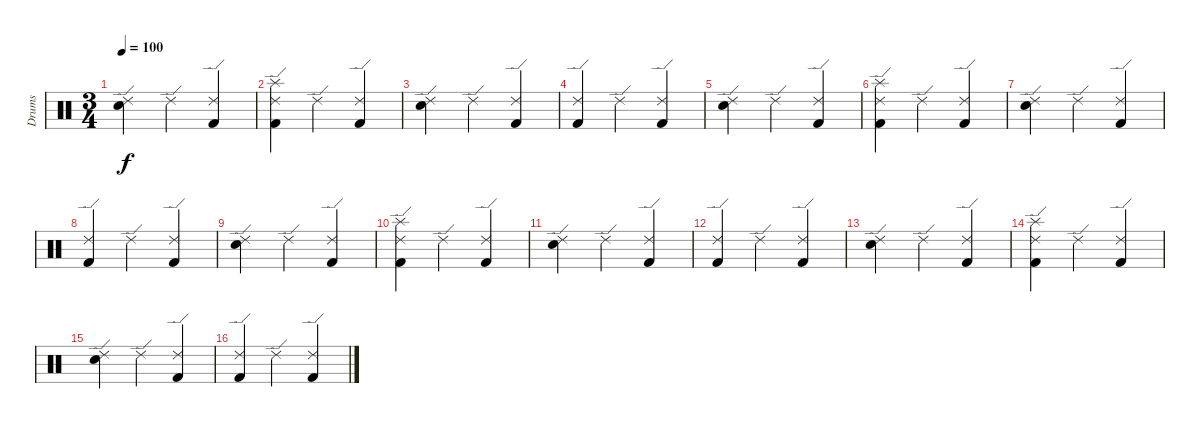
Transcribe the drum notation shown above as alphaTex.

\track ("Drums" "Drums") {instrument percussion}
\staff {score}
\articulation defaults
\ts (3 4)
\tempo 100
\clef neutral
\ks c
("Ride (edge) 2" "Electric Snare (hit)").4{dy f} "Ride (edge) 2".4 ("Ride (edge) 2" "Kick (hit) 2").4 |
("Ride (edge) 2" "Splash (hit)" "Kick (hit) 2").4 "Ride (edge) 2".4 ("Ride (edge) 2" "Kick (hit) 2").4 |
("Ride (edge) 2" "Electric Snare (hit)").4 "Ride (edge) 2".4 ("Ride (edge) 2" "Kick (hit) 2").4 |
("Ride (edge) 2" "Kick (hit) 2").4 "Ride (edge) 2".4 ("Ride (edge) 2" "Kick (hit) 2").4 |
("Ride (edge) 2" "Electric Snare (hit)").4 "Ride (edge) 2".4 ("Ride (edge) 2" "Kick (hit) 2").4 |
("Ride (edge) 2" "Splash (hit)" "Kick (hit) 2").4 "Ride (edge) 2".4 ("Ride (edge) 2" "Kick (hit) 2").4 |
("Ride (edge) 2" "Electric Snare (hit)").4 "Ride (edge) 2".4 ("Ride (edge) 2" "Kick (hit) 2").4 |
("Ride (edge) 2" "Kick (hit) 2").4 "Ride (edge) 2".4 ("Ride (edge) 2" "Kick (hit) 2").4 |
("Ride (edge) 2" "Electric Snare (hit)").4 "Ride (edge) 2".4 ("Ride (edge) 2" "Kick (hit) 2").4 |
("Ride (edge) 2" "Splash (hit)" "Kick (hit) 2").4 "Ride (edge) 2".4 ("Ride (edge) 2" "Kick (hit) 2").4 |
("Ride (edge) 2" "Electric Snare (hit)").4 "Ride (edge) 2".4 ("Ride (edge) 2" "Kick (hit) 2").4 |
("Ride (edge) 2" "Kick (hit) 2").4 "Ride (edge) 2".4 ("Ride (edge) 2" "Kick (hit) 2").4 |
("Ride (edge) 2" "Electric Snare (hit)").4 "Ride (edge) 2".4 ("Ride (edge) 2" "Kick (hit) 2").4 |
("Ride (edge) 2" "Splash (hit)" "Kick (hit) 2").4 "Ride (edge) 2".4 ("Ride (edge) 2" "Kick (hit) 2").4 |
("Ride (edge) 2" "Electric Snare (hit)").4 "Ride (edge) 2".4 ("Ride (edge) 2" "Kick (hit) 2").4 |
("Ride (edge) 2" "Kick (hit) 2").4 "Ride (edge) 2".4 ("Ride (edge) 2" "Kick (hit) 2").4
